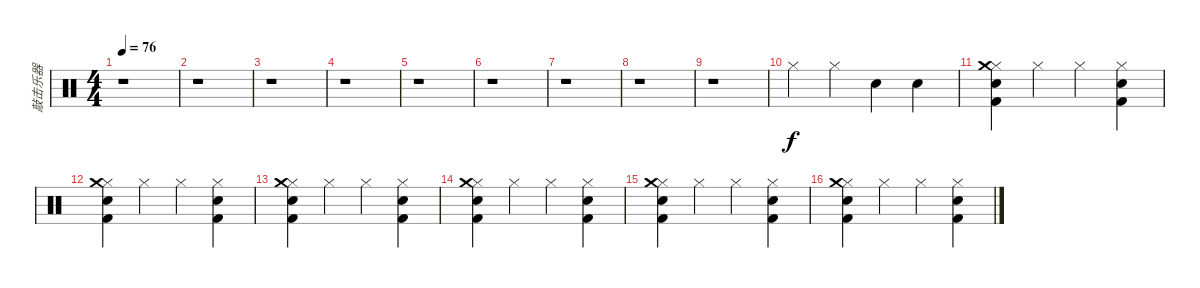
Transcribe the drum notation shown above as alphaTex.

\track ("敲击乐器" "敲击乐器") {instrument percussion}
\staff {score}
\articulation defaults
\ts (4 4)
\tempo 76
\clef neutral
\ks c
r.1{dy f} |
r.1 |
r.1 |
r.1 |
r.1 |
r.1 |
r.1 |
r.1 |
r.1 |
"Hi-Hat (closed)".4 "Hi-Hat (closed)".4 "Snare (hit) 2".4 "Electric Snare (hit)".4 |
("Hi-Hat (closed)" "Snare (hit) 2" "Kick (hit) 2" "Crash medium (hit)").4 "Hi-Hat (closed)".4 "Hi-Hat (closed)".4 ("Hi-Hat (closed)" "Snare (hit) 2" "Kick (hit) 2").4 |
("Hi-Hat (closed)" "Snare (hit) 2" "Kick (hit) 2" "Crash medium (hit)").4 "Hi-Hat (closed)".4 "Hi-Hat (closed)".4 ("Hi-Hat (closed)" "Snare (hit) 2" "Kick (hit) 2").4 |
("Hi-Hat (closed)" "Snare (hit) 2" "Kick (hit) 2" "Crash medium (hit)").4 "Hi-Hat (closed)".4 "Hi-Hat (closed)".4 ("Hi-Hat (closed)" "Snare (hit) 2" "Kick (hit) 2").4 |
("Hi-Hat (closed)" "Snare (hit) 2" "Kick (hit) 2" "Crash medium (hit)").4 "Hi-Hat (closed)".4 "Hi-Hat (closed)".4 ("Hi-Hat (closed)" "Snare (hit) 2" "Kick (hit) 2").4 |
("Hi-Hat (closed)" "Snare (hit) 2" "Kick (hit) 2" "Crash medium (hit)").4 "Hi-Hat (closed)".4 "Hi-Hat (closed)".4 ("Hi-Hat (closed)" "Snare (hit) 2" "Kick (hit) 2").4 |
("Hi-Hat (closed)" "Snare (hit) 2" "Kick (hit) 2" "Crash medium (hit)").4 "Hi-Hat (closed)".4 "Hi-Hat (closed)".4 ("Hi-Hat (closed)" "Snare (hit) 2" "Kick (hit) 2").4
